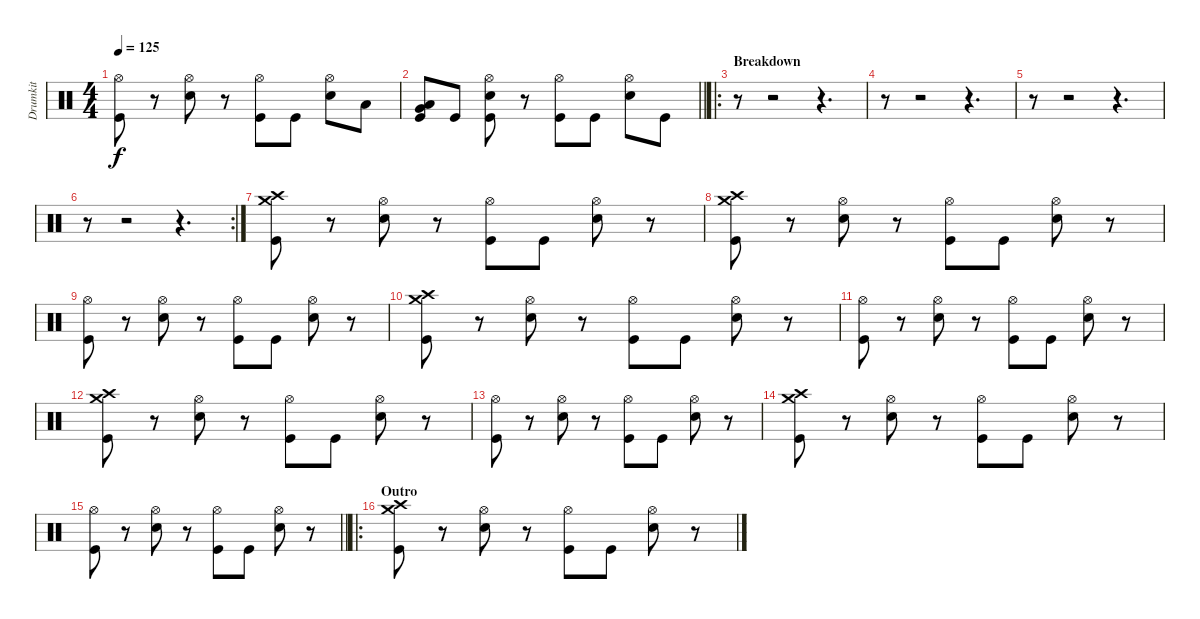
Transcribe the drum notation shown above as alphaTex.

\track ("Drumkit" "Drumkit") {instrument percussion}
\staff {score}
\articulation defaults
\ts (4 4)
\tempo 125
\clef neutral
\ks c
("Hi-Hat (open)" "Kick (hit)").8{dy f} r.8 ("Hi-Hat (open)" "Snare (hit) 2").8 r.8 ("Hi-Hat (open)" "Kick (hit)").8 "Kick (hit)".8 ("Hi-Hat (open)" "Snare (hit) 2").8 "Low Tom (hit)".8 |
\barLineRight lightlight
("Very Low Tom (hit)" "Low Tom (hit)" "Kick (hit)").8 "Kick (hit)".8 ("Hi-Hat (open)" "Snare (hit) 2" "Kick (hit)").8 r.8 ("Hi-Hat (open)" "Kick (hit)").8 "Kick (hit)".8 ("Hi-Hat (open)" "Snare (hit) 2").8 "Kick (hit)".8 |
\ro
\section ("" "Breakdown")
r.8 r.2 r.4{d} |
r.8 r.2 r.4{d} |
r.8 r.2 r.4{d} |
\rc 2
r.8 r.2 r.4{d} |
("Crash medium (hit)" "Crash high (hit)" "Kick (hit)").8 r.8 ("Hi-Hat (open)" "Snare (hit) 2").8 r.8 ("Hi-Hat (open)" "Kick (hit)").8 "Kick (hit)".8 ("Hi-Hat (open)" "Snare (hit) 2").8 r.8 |
("Crash medium (hit)" "Crash high (hit)" "Kick (hit)").8 r.8 ("Hi-Hat (open)" "Snare (hit) 2").8 r.8 ("Hi-Hat (open)" "Kick (hit)").8 "Kick (hit)".8 ("Hi-Hat (open)" "Snare (hit) 2").8 r.8 |
("Hi-Hat (open)" "Kick (hit)").8 r.8 ("Hi-Hat (open)" "Snare (hit) 2").8 r.8 ("Hi-Hat (open)" "Kick (hit)").8 "Kick (hit)".8 ("Hi-Hat (open)" "Snare (hit) 2").8 r.8 |
("Crash medium (hit)" "Crash high (hit)" "Kick (hit)").8 r.8 ("Hi-Hat (open)" "Snare (hit) 2").8 r.8 ("Hi-Hat (open)" "Kick (hit)").8 "Kick (hit)".8 ("Hi-Hat (open)" "Snare (hit) 2").8 r.8 |
("Hi-Hat (open)" "Kick (hit)").8 r.8 ("Hi-Hat (open)" "Snare (hit) 2").8 r.8 ("Hi-Hat (open)" "Kick (hit)").8 "Kick (hit)".8 ("Hi-Hat (open)" "Snare (hit) 2").8 r.8 |
("Crash medium (hit)" "Crash high (hit)" "Kick (hit)").8 r.8 ("Hi-Hat (open)" "Snare (hit) 2").8 r.8 ("Hi-Hat (open)" "Kick (hit)").8 "Kick (hit)".8 ("Hi-Hat (open)" "Snare (hit) 2").8 r.8 |
("Hi-Hat (open)" "Kick (hit)").8 r.8 ("Hi-Hat (open)" "Snare (hit) 2").8 r.8 ("Hi-Hat (open)" "Kick (hit)").8 "Kick (hit)".8 ("Hi-Hat (open)" "Snare (hit) 2").8 r.8 |
("Crash medium (hit)" "Crash high (hit)" "Kick (hit)").8 r.8 ("Hi-Hat (open)" "Snare (hit) 2").8 r.8 ("Hi-Hat (open)" "Kick (hit)").8 "Kick (hit)".8 ("Hi-Hat (open)" "Snare (hit) 2").8 r.8 |
\barLineRight lightlight
("Hi-Hat (open)" "Kick (hit)").8 r.8 ("Hi-Hat (open)" "Snare (hit) 2").8 r.8 ("Hi-Hat (open)" "Kick (hit)").8 "Kick (hit)".8 ("Hi-Hat (open)" "Snare (hit) 2").8 r.8 |
\ro
\section ("" "Outro")
("Crash medium (hit)" "Crash high (hit)" "Kick (hit)").8 r.8 ("Hi-Hat (open)" "Snare (hit) 2").8 r.8 ("Hi-Hat (open)" "Kick (hit)").8 "Kick (hit)".8 ("Hi-Hat (open)" "Snare (hit) 2").8 r.8
